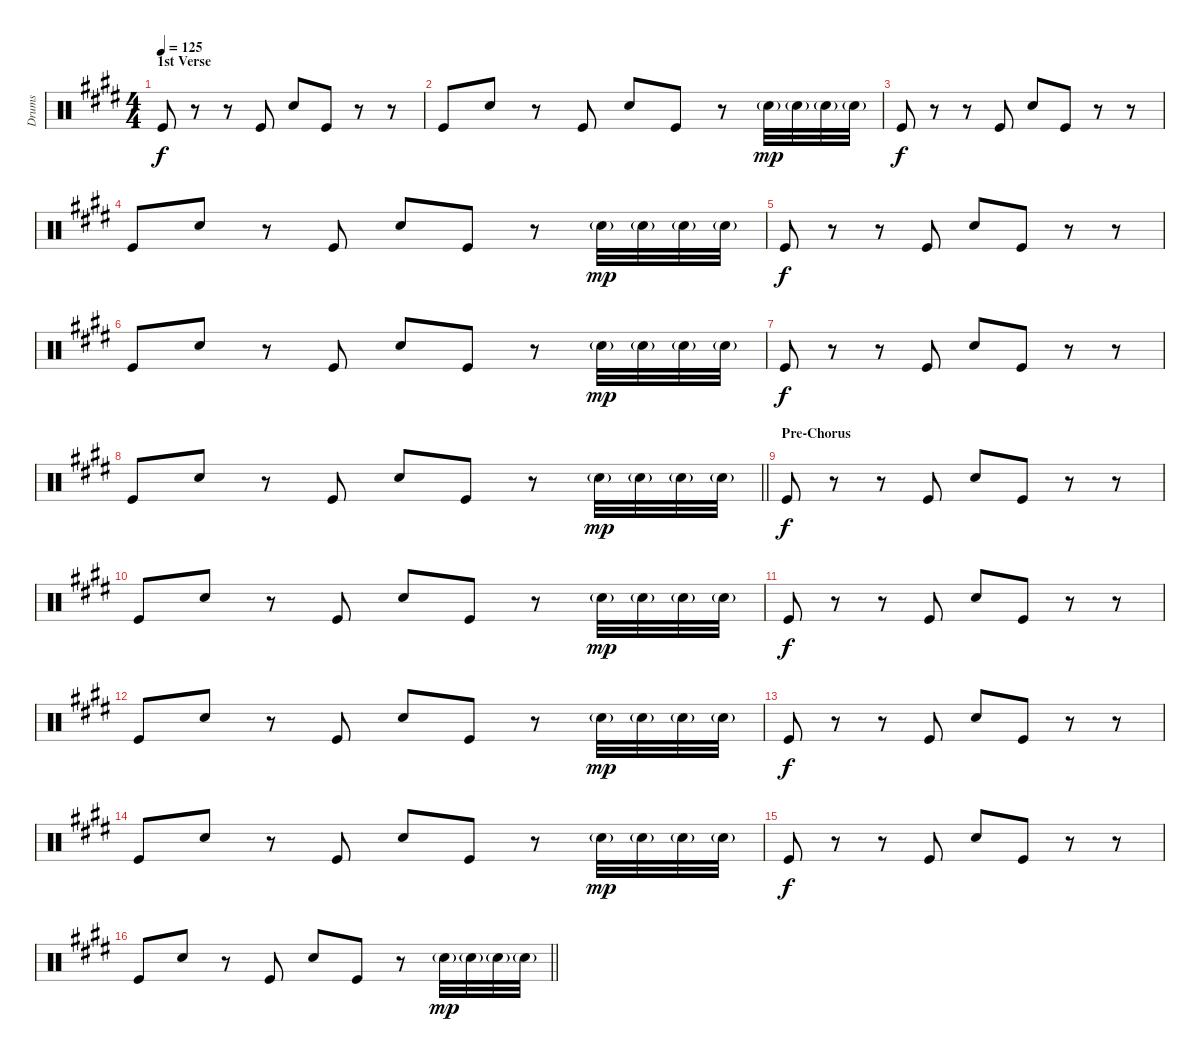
\track ("Drums" "Drums") {instrument percussion}
\staff {score}
\articulation defaults
\ts (4 4)
\section ("" "1st Verse")
\tempo 125
\clef neutral
\ks c#minor "Kick (hit)".8{dy f}
r.8 r.8 "Kick (hit)".8 "Electric Snare (hit)".8 "Kick (hit)".8 r.8 r.8 |
"Kick (hit)".8 "Electric Snare (hit)".8 r.8 "Kick (hit)".8 "Electric Snare (hit)".8 "Kick (hit)".8 r.8 "Electric Snare (hit)"{g}.32{dy mp} "Electric Snare (hit)"{g}.32 "Electric Snare (hit)"{g}.32 "Electric Snare (hit)"{g}.32 |
"Kick (hit)".8{dy f} r.8 r.8 "Kick (hit)".8 "Electric Snare (hit)".8 "Kick (hit)".8 r.8 r.8 |
"Kick (hit)".8 "Electric Snare (hit)".8 r.8 "Kick (hit)".8 "Electric Snare (hit)".8 "Kick (hit)".8 r.8 "Electric Snare (hit)"{g}.32{dy mp} "Electric Snare (hit)"{g}.32 "Electric Snare (hit)"{g}.32 "Electric Snare (hit)"{g}.32 |
"Kick (hit)".8{dy f} r.8 r.8 "Kick (hit)".8 "Electric Snare (hit)".8 "Kick (hit)".8 r.8 r.8 |
"Kick (hit)".8 "Electric Snare (hit)".8 r.8 "Kick (hit)".8 "Electric Snare (hit)".8 "Kick (hit)".8 r.8 "Electric Snare (hit)"{g}.32{dy mp} "Electric Snare (hit)"{g}.32 "Electric Snare (hit)"{g}.32 "Electric Snare (hit)"{g}.32 |
"Kick (hit)".8{dy f} r.8 r.8 "Kick (hit)".8 "Electric Snare (hit)".8 "Kick (hit)".8 r.8 r.8 |
\barLineRight lightlight "Kick (hit)".8 "Electric Snare (hit)".8
r.8 "Kick (hit)".8 "Electric Snare (hit)".8 "Kick (hit)".8 r.8 "Electric Snare (hit)"{g}.32{dy mp} "Electric Snare (hit)"{g}.32 "Electric Snare (hit)"{g}.32 "Electric Snare (hit)"{g}.32 |
\section ("" "Pre-Chorus")
"Kick (hit)".8{dy f} r.8 r.8 "Kick (hit)".8 "Electric Snare (hit)".8 "Kick (hit)".8 r.8 r.8 |
"Kick (hit)".8 "Electric Snare (hit)".8 r.8 "Kick (hit)".8 "Electric Snare (hit)".8 "Kick (hit)".8 r.8 "Electric Snare (hit)"{g}.32{dy mp} "Electric Snare (hit)"{g}.32 "Electric Snare (hit)"{g}.32 "Electric Snare (hit)"{g}.32 |
"Kick (hit)".8{dy f} r.8 r.8 "Kick (hit)".8 "Electric Snare (hit)".8 "Kick (hit)".8 r.8 r.8 |
"Kick (hit)".8 "Electric Snare (hit)".8 r.8 "Kick (hit)".8 "Electric Snare (hit)".8 "Kick (hit)".8 r.8 "Electric Snare (hit)"{g}.32{dy mp} "Electric Snare (hit)"{g}.32 "Electric Snare (hit)"{g}.32 "Electric Snare (hit)"{g}.32 |
"Kick (hit)".8{dy f} r.8 r.8 "Kick (hit)".8 "Electric Snare (hit)".8 "Kick (hit)".8 r.8 r.8 |
"Kick (hit)".8 "Electric Snare (hit)".8 r.8 "Kick (hit)".8 "Electric Snare (hit)".8 "Kick (hit)".8 r.8 "Electric Snare (hit)"{g}.32{dy mp} "Electric Snare (hit)"{g}.32 "Electric Snare (hit)"{g}.32 "Electric Snare (hit)"{g}.32 |
"Kick (hit)".8{dy f} r.8 r.8 "Kick (hit)".8 "Electric Snare (hit)".8 "Kick (hit)".8 r.8 r.8 |
\barLineRight lightlight "Kick (hit)".8 "Electric Snare (hit)".8
r.8 "Kick (hit)".8 "Electric Snare (hit)".8 "Kick (hit)".8 r.8 "Electric Snare (hit)"{g}.32{dy mp} "Electric Snare (hit)"{g}.32 "Electric Snare (hit)"{g}.32 "Electric Snare (hit)"{g}.32
